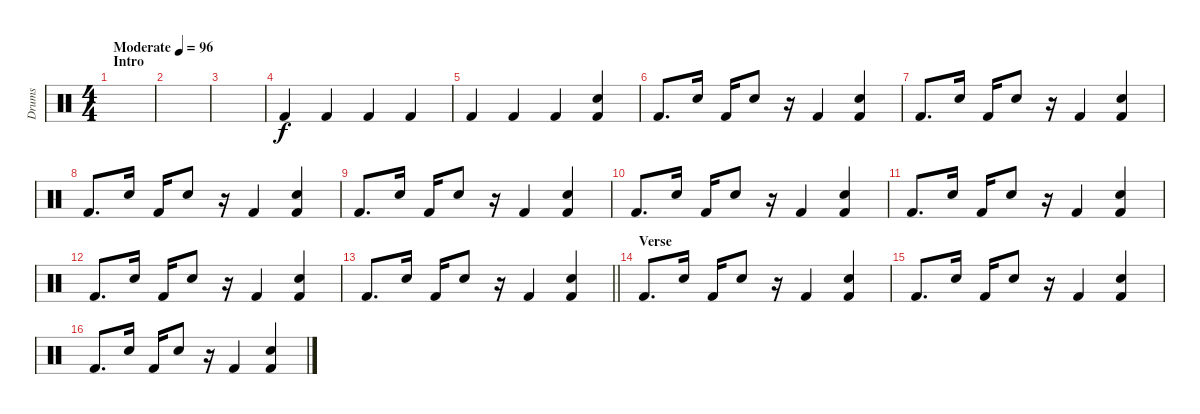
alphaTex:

\track ("Drums" "Drums") {instrument percussion}
\staff {score}
\articulation defaults
\ts (4 4)
\section ("" "Intro")
\tempo (96 "Moderate")
\clef neutral
\ks c
|
|
|
"Kick (hit) 2".4 "Kick (hit) 2".4 "Kick (hit) 2".4 "Kick (hit) 2".4 |
"Kick (hit) 2".4 "Kick (hit) 2".4 "Kick (hit) 2".4 ("Snare (hit) 2" "Kick (hit) 2").4 |
"Kick (hit) 2".8{d} "Snare (hit) 2".16 "Kick (hit) 2".16 "Snare (hit) 2".8 r.16 "Kick (hit) 2".4 ("Snare (hit) 2" "Kick (hit) 2").4 |
"Kick (hit) 2".8{d} "Snare (hit) 2".16 "Kick (hit) 2".16 "Snare (hit) 2".8 r.16 "Kick (hit) 2".4 ("Snare (hit) 2" "Kick (hit) 2").4 |
"Kick (hit) 2".8{d} "Snare (hit) 2".16 "Kick (hit) 2".16 "Snare (hit) 2".8 r.16 "Kick (hit) 2".4 ("Snare (hit) 2" "Kick (hit) 2").4 |
"Kick (hit) 2".8{d} "Snare (hit) 2".16 "Kick (hit) 2".16 "Snare (hit) 2".8 r.16 "Kick (hit) 2".4 ("Snare (hit) 2" "Kick (hit) 2").4 |
"Kick (hit) 2".8{d} "Snare (hit) 2".16 "Kick (hit) 2".16 "Snare (hit) 2".8 r.16 "Kick (hit) 2".4 ("Snare (hit) 2" "Kick (hit) 2").4 |
"Kick (hit) 2".8{d} "Snare (hit) 2".16 "Kick (hit) 2".16 "Snare (hit) 2".8 r.16 "Kick (hit) 2".4 ("Snare (hit) 2" "Kick (hit) 2").4 |
"Kick (hit) 2".8{d} "Snare (hit) 2".16 "Kick (hit) 2".16 "Snare (hit) 2".8 r.16 "Kick (hit) 2".4 ("Snare (hit) 2" "Kick (hit) 2").4 |
\barLineRight lightlight "Kick (hit) 2".8{d} "Snare (hit) 2".16 "Kick (hit) 2".16 "Snare (hit) 2".8
r.16 "Kick (hit) 2".4 ("Snare (hit) 2" "Kick (hit) 2").4 |
\section ("" "Verse")
"Kick (hit) 2".8{d} "Snare (hit) 2".16 "Kick (hit) 2".16 "Snare (hit) 2".8 r.16 "Kick (hit) 2".4 ("Snare (hit) 2" "Kick (hit) 2").4 |
"Kick (hit) 2".8{d} "Snare (hit) 2".16 "Kick (hit) 2".16 "Snare (hit) 2".8 r.16 "Kick (hit) 2".4 ("Snare (hit) 2" "Kick (hit) 2").4 |
"Kick (hit) 2".8{d} "Snare (hit) 2".16 "Kick (hit) 2".16 "Snare (hit) 2".8 r.16 "Kick (hit) 2".4 ("Snare (hit) 2" "Kick (hit) 2").4
